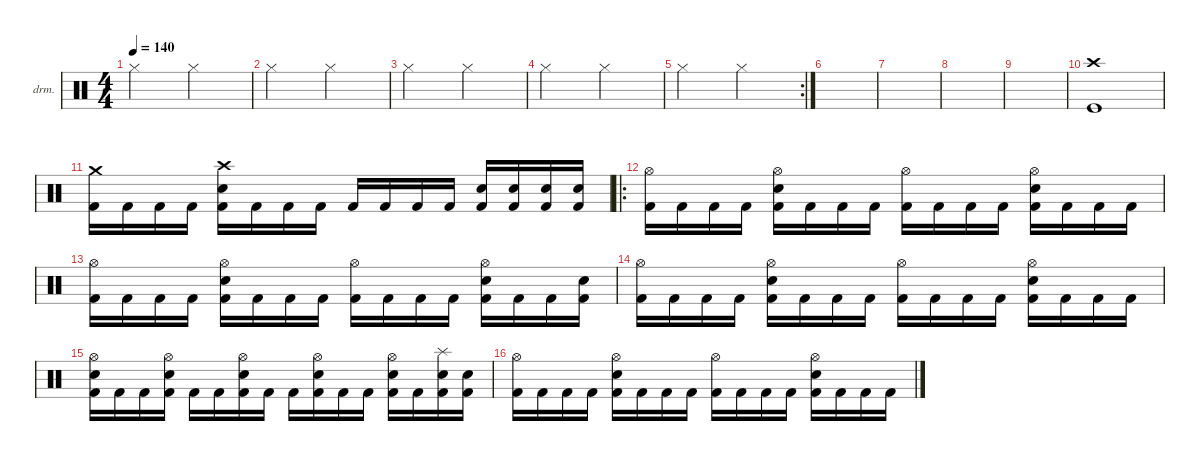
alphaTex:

\defaultSystemsLayout 4
\hideDynamics
\bracketExtendMode nobrackets
\firstSystemTrackNameOrientation horizontal
\otherSystemsTrackNameOrientation horizontal
\track ("Drumkit" "drm.") {instrument percussion}
\staff {score}
\articulation defaults
\ts (4 4)
\tempo 140
\clef neutral
\ks c "Hi-Hat (closed)".2{dy mf} "Hi-Hat (closed)".2
|
"Hi-Hat (closed)".2 "Hi-Hat (closed)".2 |
"Hi-Hat (closed)".2 "Hi-Hat (closed)".2 |
"Hi-Hat (closed)".2 "Hi-Hat (closed)".2 |
\rc 2 "Hi-Hat (closed)".2 "Hi-Hat (closed)".2
|
|
|
|
|
("Crash high (hit)" "Kick (hit)").1 |
("Crash medium (hit)" "Kick (hit) 2").16{dy f} "Kick (hit) 2".16 "Kick (hit) 2".16 "Kick (hit) 2".16 ("Crash high (hit)" "Snare (hit) 2" "Kick (hit) 2").16 "Kick (hit) 2".16 "Kick (hit) 2".16 "Kick (hit) 2".16 "Kick (hit) 2".16 "Kick (hit) 2".16 "Kick (hit) 2".16 "Kick (hit) 2".16 ("Snare (hit) 2" "Kick (hit) 2").16 ("Snare (hit) 2" "Kick (hit) 2").16 ("Snare (hit) 2" "Kick (hit) 2").16 ("Snare (hit) 2" "Kick (hit) 2").16 |
\ro
("Hi-Hat (open)" "Kick (hit) 2").16{dy ff} "Kick (hit) 2".16 "Kick (hit) 2".16 "Kick (hit) 2".16 ("Hi-Hat (open)" "Snare (hit) 2" "Kick (hit) 2").16 "Kick (hit) 2".16 "Kick (hit) 2".16 "Kick (hit) 2".16 ("Hi-Hat (open)" "Kick (hit) 2").16 "Kick (hit) 2".16 "Kick (hit) 2".16 "Kick (hit) 2".16 ("Hi-Hat (open)" "Snare (hit) 2" "Kick (hit) 2").16 "Kick (hit) 2".16 "Kick (hit) 2".16 "Kick (hit) 2".16 |
("Hi-Hat (open)" "Kick (hit) 2").16 "Kick (hit) 2".16 "Kick (hit) 2".16 "Kick (hit) 2".16 ("Hi-Hat (open)" "Snare (hit) 2" "Kick (hit) 2").16 "Kick (hit) 2".16 "Kick (hit) 2".16 "Kick (hit) 2".16 ("Hi-Hat (open)" "Kick (hit) 2").16 "Kick (hit) 2".16 "Kick (hit) 2".16 "Kick (hit) 2".16 ("Hi-Hat (open)" "Snare (hit) 2" "Kick (hit) 2").16 "Kick (hit) 2".16 "Kick (hit) 2".16 ("Snare (hit) 2" "Kick (hit) 2").16 |
("Hi-Hat (open)" "Kick (hit) 2").16 "Kick (hit) 2".16 "Kick (hit) 2".16 "Kick (hit) 2".16 ("Hi-Hat (open)" "Snare (hit) 2" "Kick (hit) 2").16 "Kick (hit) 2".16 "Kick (hit) 2".16 "Kick (hit) 2".16 ("Hi-Hat (open)" "Kick (hit) 2").16 "Kick (hit) 2".16 "Kick (hit) 2".16 "Kick (hit) 2".16 ("Hi-Hat (open)" "Snare (hit) 2" "Kick (hit) 2").16 "Kick (hit) 2".16 "Kick (hit) 2".16 "Kick (hit) 2".16 |
("Hi-Hat (open)" "Snare (hit) 2" "Kick (hit) 2").16 "Kick (hit) 2".16 "Kick (hit) 2".16 ("Hi-Hat (open)" "Snare (hit) 2" "Kick (hit) 2").16 "Kick (hit) 2".16 "Kick (hit) 2".16 ("Hi-Hat (open)" "Snare (hit) 2" "Kick (hit) 2").16 "Kick (hit) 2".16 "Kick (hit) 2".16 ("Hi-Hat (open)" "Snare (hit) 2" "Kick (hit) 2").16 "Kick (hit) 2".16 "Kick (hit) 2".16 ("Hi-Hat (open)" "Snare (hit) 2" "Kick (hit) 2").16 "Kick (hit) 2".16 ("Splash (hit)" "Snare (hit) 2" "Kick (hit) 2").16 ("Snare (hit) 2" "Kick (hit) 2").16 |
("Hi-Hat (open)" "Kick (hit) 2").16 "Kick (hit) 2".16 "Kick (hit) 2".16 "Kick (hit) 2".16 ("Hi-Hat (open)" "Snare (hit) 2" "Kick (hit) 2").16 "Kick (hit) 2".16 "Kick (hit) 2".16 "Kick (hit) 2".16 ("Hi-Hat (open)" "Kick (hit) 2").16 "Kick (hit) 2".16 "Kick (hit) 2".16 "Kick (hit) 2".16 ("Hi-Hat (open)" "Snare (hit) 2" "Kick (hit) 2").16 "Kick (hit) 2".16 "Kick (hit) 2".16 "Kick (hit) 2".16
